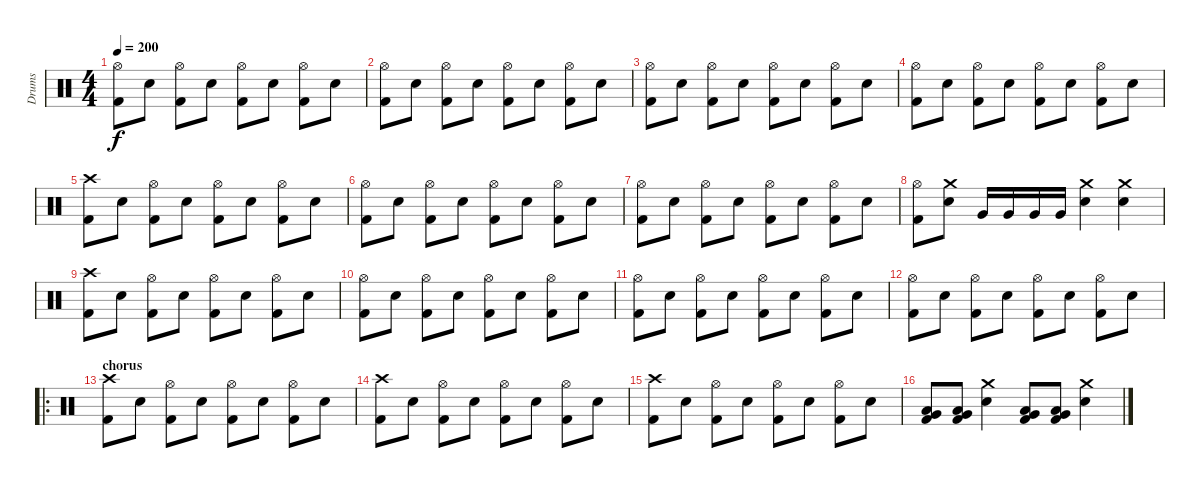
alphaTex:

\track ("Drums" "Drums") {instrument percussion}
\staff {score}
\articulation defaults
\ts (4 4)
\tempo 200
\clef neutral
\ks c
("Hi-Hat (open)" "Kick (hit) 2").8{dy f} "Electric Snare (hit)".8 ("Hi-Hat (open)" "Kick (hit) 2").8 "Electric Snare (hit)".8 ("Hi-Hat (open)" "Kick (hit) 2").8 "Electric Snare (hit)".8 ("Hi-Hat (open)" "Kick (hit) 2").8 "Electric Snare (hit)".8 |
("Hi-Hat (open)" "Kick (hit) 2").8 "Electric Snare (hit)".8 ("Hi-Hat (open)" "Kick (hit) 2").8 "Electric Snare (hit)".8 ("Hi-Hat (open)" "Kick (hit) 2").8 "Electric Snare (hit)".8 ("Hi-Hat (open)" "Kick (hit) 2").8 "Electric Snare (hit)".8 |
("Hi-Hat (open)" "Kick (hit) 2").8 "Electric Snare (hit)".8 ("Hi-Hat (open)" "Kick (hit) 2").8 "Electric Snare (hit)".8 ("Hi-Hat (open)" "Kick (hit) 2").8 "Electric Snare (hit)".8 ("Hi-Hat (open)" "Kick (hit) 2").8 "Electric Snare (hit)".8 |
("Hi-Hat (open)" "Kick (hit) 2").8 "Electric Snare (hit)".8 ("Hi-Hat (open)" "Kick (hit) 2").8 "Electric Snare (hit)".8 ("Hi-Hat (open)" "Kick (hit) 2").8 "Electric Snare (hit)".8 ("Hi-Hat (open)" "Kick (hit) 2").8 "Electric Snare (hit)".8 |
("Crash high (hit)" "Kick (hit) 2").8 "Electric Snare (hit)".8 ("Hi-Hat (open)" "Kick (hit) 2").8 "Electric Snare (hit)".8 ("Hi-Hat (open)" "Kick (hit) 2").8 "Electric Snare (hit)".8 ("Hi-Hat (open)" "Kick (hit) 2").8 "Electric Snare (hit)".8 |
("Hi-Hat (open)" "Kick (hit) 2").8 "Electric Snare (hit)".8 ("Hi-Hat (open)" "Kick (hit) 2").8 "Electric Snare (hit)".8 ("Hi-Hat (open)" "Kick (hit) 2").8 "Electric Snare (hit)".8 ("Hi-Hat (open)" "Kick (hit) 2").8 "Electric Snare (hit)".8 |
("Hi-Hat (open)" "Kick (hit) 2").8 "Electric Snare (hit)".8 ("Hi-Hat (open)" "Kick (hit) 2").8 "Electric Snare (hit)".8 ("Hi-Hat (open)" "Kick (hit) 2").8 "Electric Snare (hit)".8 ("Hi-Hat (open)" "Kick (hit) 2").8 "Electric Snare (hit)".8 |
("Hi-Hat (open)" "Kick (hit) 2").8 ("Crash medium (hit)" "Electric Snare (hit)").8 "Very Low Tom (hit)".16 "Very Low Tom (hit)".16 "Very Low Tom (hit)".16 "Very Low Tom (hit)".16 ("Crash medium (hit)" "Electric Snare (hit)").4 ("Crash medium (hit)" "Electric Snare (hit)").4 |
("Crash high (hit)" "Kick (hit) 2").8 "Electric Snare (hit)".8 ("Hi-Hat (open)" "Kick (hit) 2").8 "Electric Snare (hit)".8 ("Hi-Hat (open)" "Kick (hit) 2").8 "Electric Snare (hit)".8 ("Hi-Hat (open)" "Kick (hit) 2").8 "Electric Snare (hit)".8 |
("Hi-Hat (open)" "Kick (hit) 2").8 "Electric Snare (hit)".8 ("Hi-Hat (open)" "Kick (hit) 2").8 "Electric Snare (hit)".8 ("Hi-Hat (open)" "Kick (hit) 2").8 "Electric Snare (hit)".8 ("Hi-Hat (open)" "Kick (hit) 2").8 "Electric Snare (hit)".8 |
("Hi-Hat (open)" "Kick (hit) 2").8 "Electric Snare (hit)".8 ("Hi-Hat (open)" "Kick (hit) 2").8 "Electric Snare (hit)".8 ("Hi-Hat (open)" "Kick (hit) 2").8 "Electric Snare (hit)".8 ("Hi-Hat (open)" "Kick (hit) 2").8 "Electric Snare (hit)".8 |
("Hi-Hat (open)" "Kick (hit) 2").8 "Electric Snare (hit)".8 ("Hi-Hat (open)" "Kick (hit) 2").8 "Electric Snare (hit)".8 ("Hi-Hat (open)" "Kick (hit) 2").8 "Electric Snare (hit)".8 ("Hi-Hat (open)" "Kick (hit) 2").8 "Electric Snare (hit)".8 |
\ro
\section ("" "chorus")
("Crash high (hit)" "Kick (hit) 2").8 "Electric Snare (hit)".8 ("Hi-Hat (open)" "Kick (hit) 2").8 "Electric Snare (hit)".8 ("Hi-Hat (open)" "Kick (hit) 2").8 "Electric Snare (hit)".8 ("Hi-Hat (open)" "Kick (hit) 2").8 "Electric Snare (hit)".8 |
("Crash high (hit)" "Kick (hit) 2").8 "Electric Snare (hit)".8 ("Hi-Hat (open)" "Kick (hit) 2").8 "Electric Snare (hit)".8 ("Hi-Hat (open)" "Kick (hit) 2").8 "Electric Snare (hit)".8 ("Hi-Hat (open)" "Kick (hit) 2").8 "Electric Snare (hit)".8 |
("Crash high (hit)" "Kick (hit) 2").8 "Electric Snare (hit)".8 ("Hi-Hat (open)" "Kick (hit) 2").8 "Electric Snare (hit)".8 ("Hi-Hat (open)" "Kick (hit) 2").8 "Electric Snare (hit)".8 ("Hi-Hat (open)" "Kick (hit) 2").8 "Electric Snare (hit)".8 |
("Very Low Tom (hit)" "Low Floor Tom (hit)" "Kick (hit) 2").8 ("Very Low Tom (hit)" "Low Floor Tom (hit)" "Kick (hit) 2").8 ("Crash medium (hit)" "Electric Snare (hit)").4 ("Very Low Tom (hit)" "Low Floor Tom (hit)" "Kick (hit) 2").8 ("Very Low Tom (hit)" "Low Floor Tom (hit)" "Kick (hit) 2").8 ("Crash medium (hit)" "Electric Snare (hit)").4
